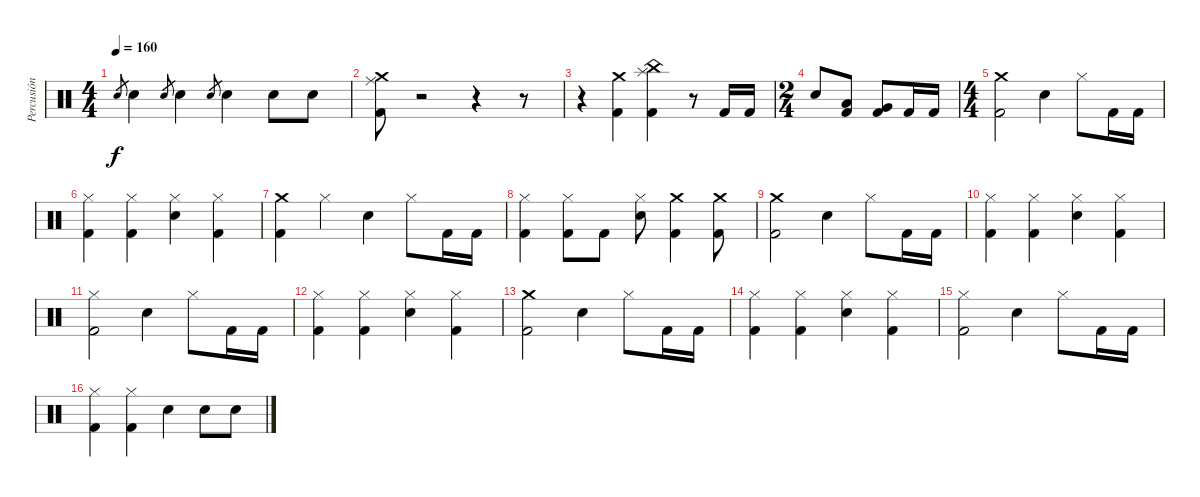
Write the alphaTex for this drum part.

\track ("Percusión" "Percusión") {instrument percussion}
\staff {score}
\articulation defaults
\ts (4 4)
\tempo 160
\clef neutral
\ks c "Snare (hit) 2".8{gr dy f} "Snare (hit) 2".4 "Snare (hit) 2".8{gr} "Snare (hit) 2".4 "Snare (hit) 2".8{gr} "Snare (hit) 2".4 "Snare (hit) 2".8 "Snare (hit) 2".8
|
("Ride (middle)" "Crash medium (hit)" "Kick (hit) 2").8 r.2 r.4 r.8 |
r.4 ("Crash medium (hit)" "Kick (hit) 2").4 ("Splash (hit)" "China (hit)" "Kick (hit) 2").4 r.8 "Kick (hit) 2".16 "Kick (hit) 2".16 |
\ts (2 4)
"Snare (hit) 2".8 ("Low Tom (hit)" "Kick (hit) 2").8 ("Very Low Tom (hit)" "Kick (hit) 2").8 "Kick (hit) 2".16 "Kick (hit) 2".16 |
\ts (4 4)
("Kick (hit) 2" "Crash medium (hit)").2 "Snare (hit) 2".4 "Hi-Hat (closed)".8 "Kick (hit) 2".16 "Kick (hit) 2".16 |
("Kick (hit) 2" "Hi-Hat (closed)").4 ("Kick (hit) 2" "Hi-Hat (closed)").4 ("Snare (hit) 2" "Hi-Hat (closed)").4 ("Hi-Hat (closed)" "Kick (hit) 2").4 |
("Kick (hit) 2" "Crash medium (hit)").4 "Hi-Hat (closed)".4 "Snare (hit) 2".4 "Hi-Hat (closed)".8 "Kick (hit) 2".16 "Kick (hit) 2".16 |
("Kick (hit) 2" "Hi-Hat (closed)").4 ("Kick (hit) 2" "Hi-Hat (closed)").8 "Kick (hit) 2".8 ("Snare (hit) 2" "Hi-Hat (closed)").8 ("Kick (hit) 2" "Crash medium (hit)").4 ("Kick (hit) 2" "Crash medium (hit)").8 |
("Kick (hit) 2" "Crash medium (hit)").2 "Snare (hit) 2".4 "Hi-Hat (closed)".8 "Kick (hit) 2".16 "Kick (hit) 2".16 |
("Kick (hit) 2" "Hi-Hat (closed)").4 ("Kick (hit) 2" "Hi-Hat (closed)").4 ("Snare (hit) 2" "Hi-Hat (closed)").4 ("Hi-Hat (closed)" "Kick (hit) 2").4 |
("Kick (hit) 2" "Hi-Hat (closed)").2 "Snare (hit) 2".4 "Hi-Hat (closed)".8 "Kick (hit) 2".16 "Kick (hit) 2".16 |
("Kick (hit) 2" "Hi-Hat (closed)").4 ("Kick (hit) 2" "Hi-Hat (closed)").4 ("Snare (hit) 2" "Hi-Hat (closed)").4 ("Hi-Hat (closed)" "Kick (hit) 2").4 |
("Kick (hit) 2" "Crash medium (hit)").2 "Snare (hit) 2".4 "Hi-Hat (closed)".8 "Kick (hit) 2".16 "Kick (hit) 2".16 |
("Kick (hit) 2" "Hi-Hat (closed)").4 ("Kick (hit) 2" "Hi-Hat (closed)").4 ("Snare (hit) 2" "Hi-Hat (closed)").4 ("Hi-Hat (closed)" "Kick (hit) 2").4 |
("Kick (hit) 2" "Hi-Hat (closed)").2 "Snare (hit) 2".4 "Hi-Hat (closed)".8 "Kick (hit) 2".16 "Kick (hit) 2".16 |
("Kick (hit) 2" "Hi-Hat (closed)").4 ("Kick (hit) 2" "Hi-Hat (closed)").4 "Snare (hit) 2".4 "Snare (hit) 2".8 "Snare (hit) 2".8
